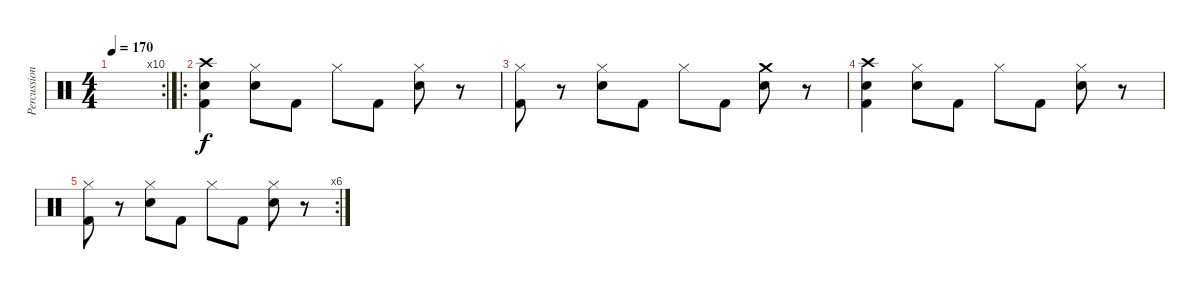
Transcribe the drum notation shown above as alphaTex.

\track ("Percussion" "Percussion") {instrument percussion}
\staff {score}
\articulation defaults
\rc 10
\ts (4 4)
\tempo 170
\clef neutral
\ks c
|
\ro
("Crash high (hit)" "Snare (hit) 2" "Kick (hit) 2").4 ("Hi-Hat (closed)" "Snare (hit) 2").8 "Kick (hit) 2".8 "Hi-Hat (closed)".8 "Kick (hit) 2".8 ("Hi-Hat (closed)" "Snare (hit) 2").8 r.8 |
("Hi-Hat (closed)" "Kick (hit) 2").8 r.8 ("Hi-Hat (closed)" "Snare (hit) 2").8 "Kick (hit) 2".8 "Hi-Hat (closed)".8 "Kick (hit) 2".8 ("Crash medium (hit)" "Snare (hit) 2").8 r.8 |
("Crash high (hit)" "Snare (hit) 2" "Kick (hit) 2").4 ("Hi-Hat (closed)" "Snare (hit) 2").8 "Kick (hit) 2".8 "Hi-Hat (closed)".8 "Kick (hit) 2".8 ("Hi-Hat (closed)" "Snare (hit) 2").8 r.8 |
\rc 6
("Hi-Hat (closed)" "Kick (hit) 2").8 r.8 ("Hi-Hat (closed)" "Snare (hit) 2").8 "Kick (hit) 2".8 "Hi-Hat (closed)".8 "Kick (hit) 2".8 ("Hi-Hat (closed)" "Snare (hit) 2").8 r.8
